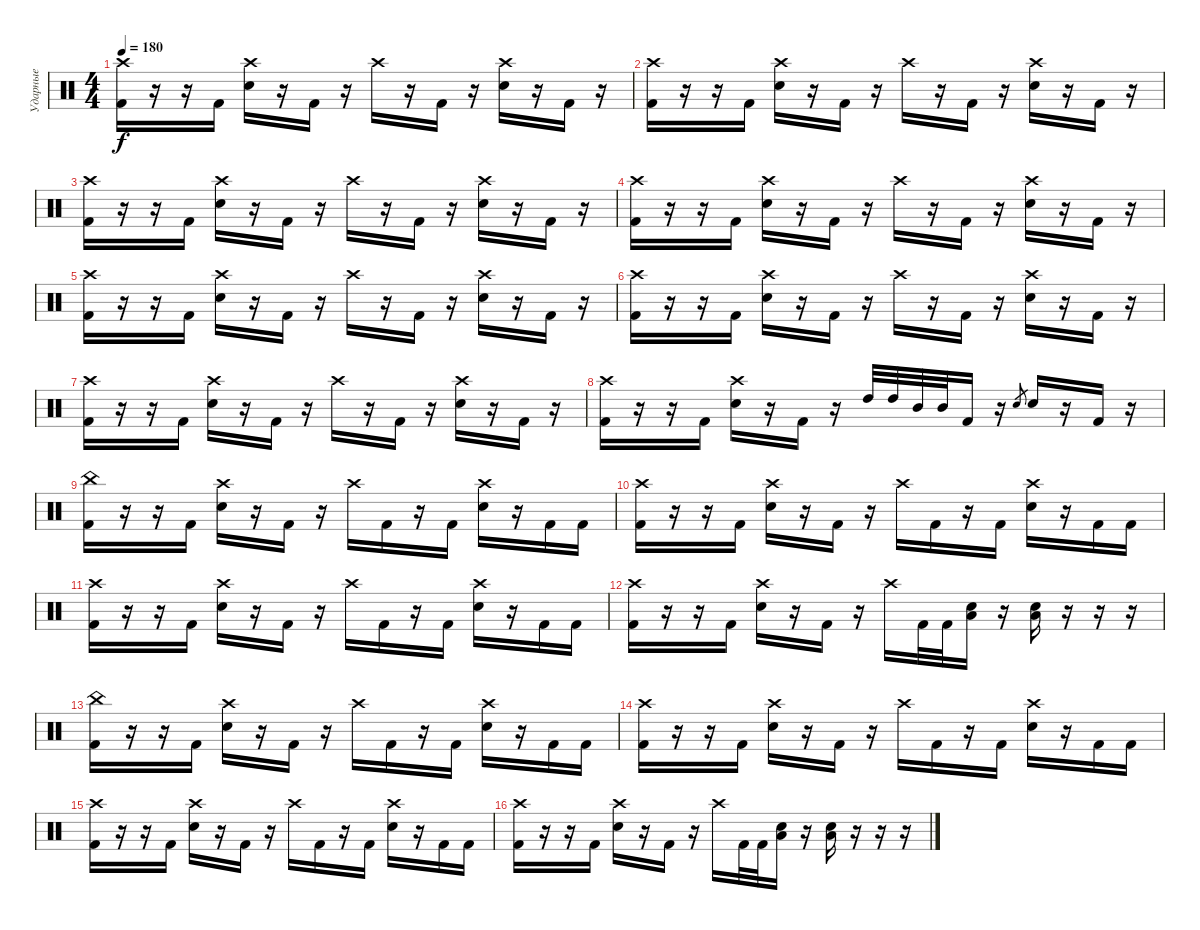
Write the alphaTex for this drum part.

\track ("Ударные" "Ударные") {instrument percussion}
\staff {score}
\articulation defaults
\ts (4 4)
\tempo 180
\clef neutral
\ks c
("Crash high (hit)" "Kick (hit) 2").16{dy f} r.16 r.16 "Kick (hit) 2".16 ("Crash high (hit)" "Electric Snare (hit)").16 r.16 "Kick (hit) 2".16 r.16 "Crash high (hit)".16 r.16 "Kick (hit) 2".16 r.16 ("Crash high (hit)" "Electric Snare (hit)").16 r.16 "Kick (hit) 2".16 r.16 |
("Crash high (hit)" "Kick (hit) 2").16 r.16 r.16 "Kick (hit) 2".16 ("Crash high (hit)" "Electric Snare (hit)").16 r.16 "Kick (hit) 2".16 r.16 "Crash high (hit)".16 r.16 "Kick (hit) 2".16 r.16 ("Crash high (hit)" "Electric Snare (hit)").16 r.16 "Kick (hit) 2".16 r.16 |
("Crash high (hit)" "Kick (hit) 2").16 r.16 r.16 "Kick (hit) 2".16 ("Crash high (hit)" "Electric Snare (hit)").16 r.16 "Kick (hit) 2".16 r.16 "Crash high (hit)".16 r.16 "Kick (hit) 2".16 r.16 ("Crash high (hit)" "Electric Snare (hit)").16 r.16 "Kick (hit) 2".16 r.16 |
("Crash high (hit)" "Kick (hit) 2").16 r.16 r.16 "Kick (hit) 2".16 ("Crash high (hit)" "Electric Snare (hit)").16 r.16 "Kick (hit) 2".16 r.16 "Crash high (hit)".16 r.16 "Kick (hit) 2".16 r.16 ("Crash high (hit)" "Electric Snare (hit)").16 r.16 "Kick (hit) 2".16 r.16 |
("Crash high (hit)" "Kick (hit) 2").16 r.16 r.16 "Kick (hit) 2".16 ("Crash high (hit)" "Electric Snare (hit)").16 r.16 "Kick (hit) 2".16 r.16 "Crash high (hit)".16 r.16 "Kick (hit) 2".16 r.16 ("Crash high (hit)" "Electric Snare (hit)").16 r.16 "Kick (hit) 2".16 r.16 |
("Crash high (hit)" "Kick (hit) 2").16 r.16 r.16 "Kick (hit) 2".16 ("Crash high (hit)" "Electric Snare (hit)").16 r.16 "Kick (hit) 2".16 r.16 "Crash high (hit)".16 r.16 "Kick (hit) 2".16 r.16 ("Crash high (hit)" "Electric Snare (hit)").16 r.16 "Kick (hit) 2".16 r.16 |
("Crash high (hit)" "Kick (hit) 2").16 r.16 r.16 "Kick (hit) 2".16 ("Crash high (hit)" "Electric Snare (hit)").16 r.16 "Kick (hit) 2".16 r.16 "Crash high (hit)".16 r.16 "Kick (hit) 2".16 r.16 ("Crash high (hit)" "Electric Snare (hit)").16 r.16 "Kick (hit) 2".16 r.16 |
("Crash high (hit)" "Kick (hit) 2").16 r.16 r.16 "Kick (hit) 2".16 ("Crash high (hit)" "Electric Snare (hit)").16 r.16 "Kick (hit) 2".16 r.16 "High Tom (hit)".32 "High Tom (hit)".32 "Mid Tom (hit)".32 "Mid Tom (hit)".32 "Kick (hit) 2".16 r.16 "Electric Snare (hit)".8{gr} "Electric Snare (hit)".16 r.16 "Kick (hit) 2".16 r.16 |
("China (hit)" "Kick (hit) 2").16 r.16 r.16 "Kick (hit) 2".16 ("Crash high (hit)" "Electric Snare (hit)").16 r.16 "Kick (hit) 2".16 r.16 "Crash high (hit)".16 "Kick (hit) 2".16 r.16 "Kick (hit) 2".16 ("Crash high (hit)" "Electric Snare (hit)").16 r.16 "Kick (hit) 2".16 "Kick (hit) 2".16 |
("Crash high (hit)" "Kick (hit) 2").16 r.16 r.16 "Kick (hit) 2".16 ("Crash high (hit)" "Electric Snare (hit)").16 r.16 "Kick (hit) 2".16 r.16 "Crash high (hit)".16 "Kick (hit) 2".16 r.16 "Kick (hit) 2".16 ("Crash high (hit)" "Electric Snare (hit)").16 r.16 "Kick (hit) 2".16 "Kick (hit) 2".16 |
("Crash high (hit)" "Kick (hit) 2").16 r.16 r.16 "Kick (hit) 2".16 ("Crash high (hit)" "Electric Snare (hit)").16 r.16 "Kick (hit) 2".16 r.16 "Crash high (hit)".16 "Kick (hit) 2".16 r.16 "Kick (hit) 2".16 ("Crash high (hit)" "Electric Snare (hit)").16 r.16 "Kick (hit) 2".16 "Kick (hit) 2".16 |
("Crash high (hit)" "Kick (hit) 2").16 r.16 r.16 "Kick (hit) 2".16 ("Crash high (hit)" "Electric Snare (hit)").16 r.16 "Kick (hit) 2".16 r.16 "Crash high (hit)".16 "Kick (hit) 2".32 "Kick (hit) 2".32 ("Low Tom (hit)" "Electric Snare (hit)").16 r.16 ("Low Tom (hit)" "Electric Snare (hit)").16 r.16 r.16 r.16 |
("China (hit)" "Kick (hit) 2").16 r.16 r.16 "Kick (hit) 2".16 ("Crash high (hit)" "Electric Snare (hit)").16 r.16 "Kick (hit) 2".16 r.16 "Crash high (hit)".16 "Kick (hit) 2".16 r.16 "Kick (hit) 2".16 ("Crash high (hit)" "Electric Snare (hit)").16 r.16 "Kick (hit) 2".16 "Kick (hit) 2".16 |
("Crash high (hit)" "Kick (hit) 2").16 r.16 r.16 "Kick (hit) 2".16 ("Crash high (hit)" "Electric Snare (hit)").16 r.16 "Kick (hit) 2".16 r.16 "Crash high (hit)".16 "Kick (hit) 2".16 r.16 "Kick (hit) 2".16 ("Crash high (hit)" "Electric Snare (hit)").16 r.16 "Kick (hit) 2".16 "Kick (hit) 2".16 |
("Crash high (hit)" "Kick (hit) 2").16 r.16 r.16 "Kick (hit) 2".16 ("Crash high (hit)" "Electric Snare (hit)").16 r.16 "Kick (hit) 2".16 r.16 "Crash high (hit)".16 "Kick (hit) 2".16 r.16 "Kick (hit) 2".16 ("Crash high (hit)" "Electric Snare (hit)").16 r.16 "Kick (hit) 2".16 "Kick (hit) 2".16 |
("Crash high (hit)" "Kick (hit) 2").16 r.16 r.16 "Kick (hit) 2".16 ("Crash high (hit)" "Electric Snare (hit)").16 r.16 "Kick (hit) 2".16 r.16 "Crash high (hit)".16 "Kick (hit) 2".32 "Kick (hit) 2".32 ("Low Tom (hit)" "Electric Snare (hit)").16 r.16 ("Low Tom (hit)" "Electric Snare (hit)").16 r.16 r.16 r.16
